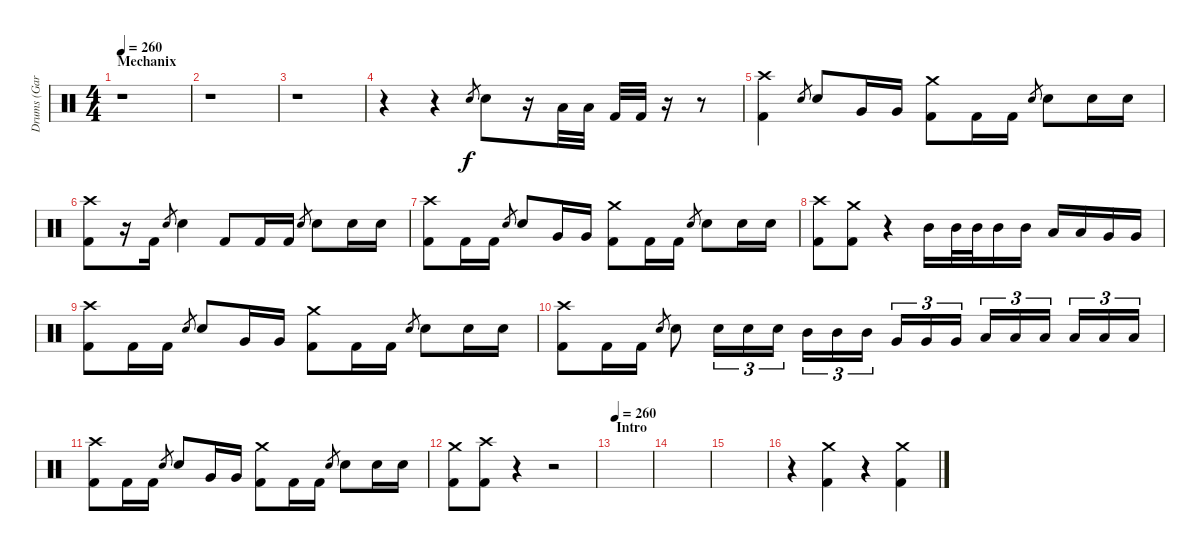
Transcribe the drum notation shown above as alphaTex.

\track ("Drums (Gar Samuelson)" "Drums (Gar") {instrument percussion}
\staff {score}
\articulation defaults
\ts (4 4)
\section ("" "Mechanix")
\tempo 260
\tempo 100
\tempo 260
\clef neutral
\ks c
r.1{dy f} |
r.1 |
r.1 |
r.4 r.4 "Snare (hit) 2".8{gr} "Snare (hit) 2".8 r.16 "Low Floor Tom (hit)".32 "Low Tom (hit)".32 "Kick (hit) 2".32 "Kick (hit) 2".32 r.16 r.8 |
("Crash high (hit)" "Kick (hit) 2").4 "Snare (hit) 2".8{gr} "Snare (hit) 2".8 "Very Low Tom (hit)".16 "Very Low Tom (hit)".16 ("Crash medium (hit)" "Kick (hit) 2").8 "Kick (hit) 2".16 "Kick (hit) 2".16 "Snare (hit) 2".8{gr} "Snare (hit) 2".8 "Snare (hit) 2".16 "Snare (hit) 2".16 |
("Crash high (hit)" "Kick (hit) 2").8 r.16 "Kick (hit) 2".16 "Snare (hit) 2".8{gr} "Snare (hit) 2".4 "Kick (hit) 2".8 "Kick (hit) 2".16 "Kick (hit) 2".16 "Snare (hit) 2".8{gr} "Snare (hit) 2".8 "Snare (hit) 2".16 "Snare (hit) 2".16 |
("Crash high (hit)" "Kick (hit) 2").8 "Kick (hit) 2".16 "Kick (hit) 2".16 "Snare (hit) 2".8{gr} "Snare (hit) 2".8 "Very Low Tom (hit)".16 "Very Low Tom (hit)".16 ("Crash medium (hit)" "Kick (hit) 2").8 "Kick (hit) 2".16 "Kick (hit) 2".16 "Snare (hit) 2".8{gr} "Snare (hit) 2".8 "Snare (hit) 2".16 "Snare (hit) 2".16 |
("Crash high (hit)" "Kick (hit) 2").8 ("Crash medium (hit)" "Kick (hit) 2").8 r.4 "Mid Tom (hit)".16 "Mid Tom (hit)".32 "Mid Tom (hit)".32 "Mid Tom (hit)".16 "Mid Tom (hit)".16 "Low Tom (hit)".16 "Low Tom (hit)".16 "Very Low Tom (hit)".16 "Very Low Tom (hit)".16 |
("Crash high (hit)" "Kick (hit) 2").8 "Kick (hit) 2".16 "Kick (hit) 2".16 "Snare (hit) 2".8{gr} "Snare (hit) 2".8 "Very Low Tom (hit)".16 "Very Low Tom (hit)".16 ("Crash medium (hit)" "Kick (hit) 2").8 "Kick (hit) 2".16 "Kick (hit) 2".16 "Snare (hit) 2".8{gr} "Snare (hit) 2".8 "Snare (hit) 2".16 "Snare (hit) 2".16 |
("Crash high (hit)" "Kick (hit) 2").8 "Kick (hit) 2".16 "Kick (hit) 2".16 "Snare (hit) 2".8{gr} "Snare (hit) 2".8 "Snare (hit) 2".16{tu (3 2)} "Snare (hit) 2".16{tu (3 2)} "Snare (hit) 2".16{tu (3 2)} "Mid Tom (hit)".16{tu (3 2)} "Mid Tom (hit)".16{tu (3 2)} "Mid Tom (hit)".16{tu (3 2)} "Very Low Tom (hit)".16{tu (3 2)} "Very Low Tom (hit)".16{tu (3 2)} "Very Low Tom (hit)".16{tu (3 2)} "Low Tom (hit)".16{tu (3 2)} "Low Tom (hit)".16{tu (3 2)} "Low Tom (hit)".16{tu (3 2)} "Low Floor Tom (hit)".16{tu (3 2)} "Low Floor Tom (hit)".16{tu (3 2)} "Low Floor Tom (hit)".16{tu (3 2)} |
("Crash high (hit)" "Kick (hit) 2").8 "Kick (hit) 2".16 "Kick (hit) 2".16 "Snare (hit) 2".8{gr} "Snare (hit) 2".8 "Very Low Tom (hit)".16 "Very Low Tom (hit)".16 ("Crash medium (hit)" "Kick (hit) 2").8 "Kick (hit) 2".16 "Kick (hit) 2".16 "Snare (hit) 2".8{gr} "Snare (hit) 2".8 "Snare (hit) 2".16 "Snare (hit) 2".16 |
("Crash medium (hit)" "Kick (hit) 2").8 ("Crash high (hit)" "Kick (hit) 2").8 r.4 r.2 |
\section ("" "Intro")
\tempo 260
|
|
|
r.4 ("Crash medium (hit)" "Kick (hit) 2").4 r.4 ("Crash medium (hit)" "Kick (hit) 2").4
